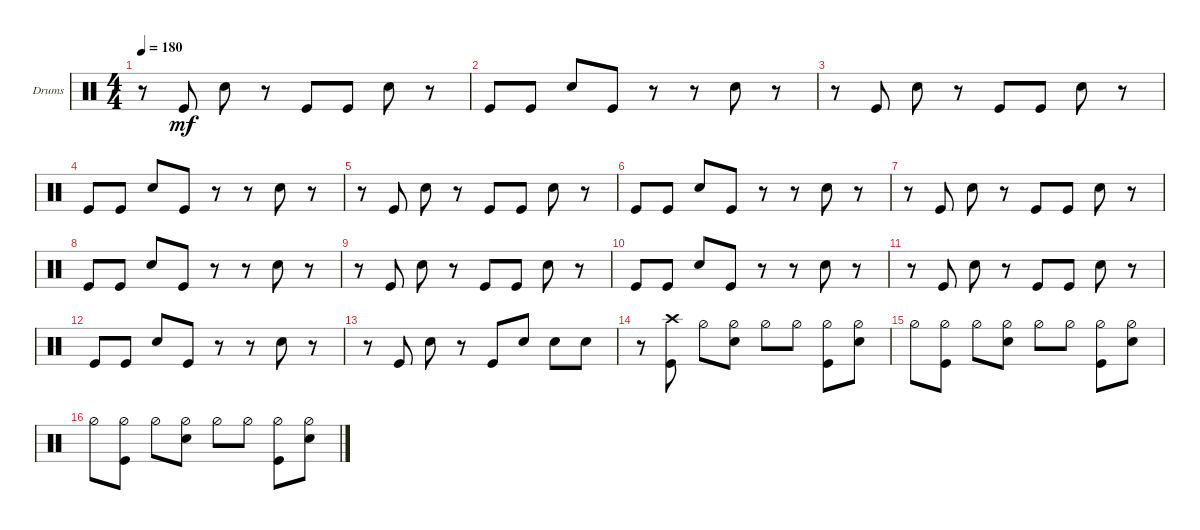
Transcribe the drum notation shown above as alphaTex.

\bracketExtendMode groupsimilarinstruments
\firstSystemTrackNameOrientation horizontal
\otherSystemsTrackNameOrientation horizontal
\track ("Drumkit" "Drums") {instrument percussion}
\staff {score}
\articulation defaults
\ts (4 4)
\tempo 180
\clef neutral
\ks c
r.8{dy mf} "Kick (hit)".8 "Snare (hit) 2".8 r.8 "Kick (hit)".8 "Kick (hit)".8 "Snare (hit) 2".8 r.8 |
"Kick (hit)".8 "Kick (hit)".8 "Snare (hit) 2".8 "Kick (hit)".8 r.8 r.8 "Snare (hit) 2".8 r.8 |
r.8 "Kick (hit)".8 "Snare (hit) 2".8 r.8 "Kick (hit)".8 "Kick (hit)".8 "Snare (hit) 2".8 r.8 |
"Kick (hit)".8 "Kick (hit)".8 "Snare (hit) 2".8 "Kick (hit)".8 r.8 r.8 "Snare (hit) 2".8 r.8 |
r.8 "Kick (hit)".8 "Snare (hit) 2".8 r.8 "Kick (hit)".8 "Kick (hit)".8 "Snare (hit) 2".8 r.8 |
"Kick (hit)".8 "Kick (hit)".8 "Snare (hit) 2".8 "Kick (hit)".8 r.8 r.8 "Snare (hit) 2".8 r.8 |
r.8 "Kick (hit)".8 "Snare (hit) 2".8 r.8 "Kick (hit)".8 "Kick (hit)".8 "Snare (hit) 2".8 r.8 |
"Kick (hit)".8 "Kick (hit)".8 "Snare (hit) 2".8 "Kick (hit)".8 r.8 r.8 "Snare (hit) 2".8 r.8 |
r.8 "Kick (hit)".8 "Snare (hit) 2".8 r.8 "Kick (hit)".8 "Kick (hit)".8 "Snare (hit) 2".8 r.8 |
"Kick (hit)".8 "Kick (hit)".8 "Snare (hit) 2".8 "Kick (hit)".8 r.8 r.8 "Snare (hit) 2".8 r.8 |
r.8 "Kick (hit)".8 "Snare (hit) 2".8 r.8 "Kick (hit)".8 "Kick (hit)".8 "Snare (hit) 2".8 r.8 |
"Kick (hit)".8 "Kick (hit)".8 "Snare (hit) 2".8 "Kick (hit)".8 r.8 r.8 "Snare (hit) 2".8 r.8 |
r.8 "Kick (hit)".8 "Snare (hit) 2".8 r.8 "Kick (hit)".8 "Snare (hit) 2".8 "Snare (hit) 2".8 "Snare (hit) 2".8 |
r.8 ("Kick (hit)" "Crash high (hit)").8 "Hi-Hat (half)".8 ("Snare (hit) 2" "Hi-Hat (half)").8 "Hi-Hat (half)".8 "Hi-Hat (half)".8 ("Kick (hit)" "Hi-Hat (half)").8 ("Snare (hit) 2" "Hi-Hat (half)").8 |
"Hi-Hat (half)".8 ("Kick (hit)" "Hi-Hat (half)").8 "Hi-Hat (half)".8 ("Snare (hit) 2" "Hi-Hat (half)").8 "Hi-Hat (half)".8 "Hi-Hat (half)".8 ("Kick (hit)" "Hi-Hat (half)").8 ("Snare (hit) 2" "Hi-Hat (half)").8 |
"Hi-Hat (half)".8 ("Kick (hit)" "Hi-Hat (half)").8 "Hi-Hat (half)".8 ("Snare (hit) 2" "Hi-Hat (half)").8 "Hi-Hat (half)".8 "Hi-Hat (half)".8 ("Kick (hit)" "Hi-Hat (half)").8 ("Snare (hit) 2" "Hi-Hat (half)").8
